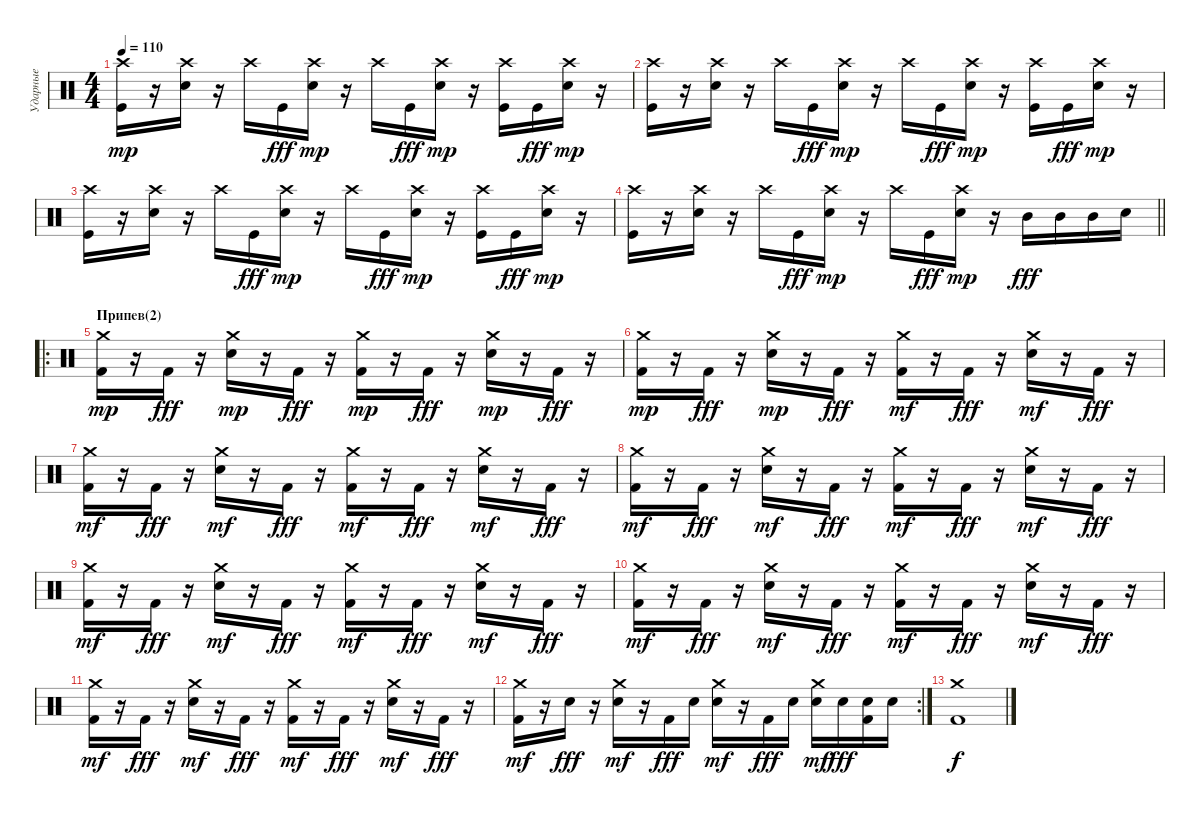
\track ("Ударные" "Ударные") {instrument percussion}
\staff {score}
\articulation defaults
\ts (4 4)
\tempo 110
\clef neutral
\ks c
("Kick (hit)" "Crash high (hit)").16{dy mp} r.16 ("Electric Snare (hit)" "Crash high (hit)").16 r.16 "Crash high (hit)".16 "Kick (hit)".16{dy fff} ("Electric Snare (hit)" "Crash high (hit)").16{dy mp} r.16 "Crash high (hit)".16 "Kick (hit)".16{dy fff} ("Electric Snare (hit)" "Crash high (hit)").16{dy mp} r.16 ("Kick (hit)" "Crash high (hit)").16 "Kick (hit)".16{dy fff} ("Electric Snare (hit)" "Crash high (hit)").16{dy mp} r.16 |
("Kick (hit)" "Crash high (hit)").16 r.16 ("Electric Snare (hit)" "Crash high (hit)").16 r.16 "Crash high (hit)".16 "Kick (hit)".16{dy fff} ("Electric Snare (hit)" "Crash high (hit)").16{dy mp} r.16 "Crash high (hit)".16 "Kick (hit)".16{dy fff} ("Electric Snare (hit)" "Crash high (hit)").16{dy mp} r.16 ("Kick (hit)" "Crash high (hit)").16 "Kick (hit)".16{dy fff} ("Electric Snare (hit)" "Crash high (hit)").16{dy mp} r.16 |
("Kick (hit)" "Crash high (hit)").16 r.16 ("Electric Snare (hit)" "Crash high (hit)").16 r.16 "Crash high (hit)".16 "Kick (hit)".16{dy fff} ("Electric Snare (hit)" "Crash high (hit)").16{dy mp} r.16 "Crash high (hit)".16 "Kick (hit)".16{dy fff} ("Electric Snare (hit)" "Crash high (hit)").16{dy mp} r.16 ("Kick (hit)" "Crash high (hit)").16 "Kick (hit)".16{dy fff} ("Electric Snare (hit)" "Crash high (hit)").16{dy mp} r.16 |
\barLineRight lightlight
("Kick (hit)" "Crash high (hit)").16 r.16 ("Electric Snare (hit)" "Crash high (hit)").16 r.16 "Crash high (hit)".16 "Kick (hit)".16{dy fff} ("Electric Snare (hit)" "Crash high (hit)").16{dy mp} r.16 "Crash high (hit)".16 "Kick (hit)".16{dy fff} ("Electric Snare (hit)" "Crash high (hit)").16{dy mp} r.16 "Mid Tom (hit)".16{dy fff} "Mid Tom (hit)".16 "Mid Tom (hit)".16 "Electric Snare (hit)".16 |
\ro
\section ("" "Припев(2)")
("Kick (hit) 2" "Crash medium (hit)").16{dy mp} r.16 "Kick (hit) 2".16{dy fff} r.16 ("Snare (hit) 2" "Crash medium (hit)").16{dy mp} r.16 "Kick (hit) 2".16{dy fff} r.16 ("Kick (hit) 2" "Crash medium (hit)").16{dy mp} r.16 "Kick (hit) 2".16{dy fff} r.16 ("Snare (hit) 2" "Crash medium (hit)").16{dy mp} r.16 "Kick (hit) 2".16{dy fff} r.16 |
("Kick (hit) 2" "Crash medium (hit)").16{dy mp} r.16 "Kick (hit) 2".16{dy fff} r.16 ("Snare (hit) 2" "Crash medium (hit)").16{dy mp} r.16 "Kick (hit) 2".16{dy fff} r.16 ("Kick (hit) 2" "Crash medium (hit)").16{dy mf} r.16 "Kick (hit) 2".16{dy fff} r.16 ("Snare (hit) 2" "Crash medium (hit)").16{dy mf} r.16 "Kick (hit) 2".16{dy fff} r.16 |
("Kick (hit) 2" "Crash medium (hit)").16{dy mf} r.16 "Kick (hit) 2".16{dy fff} r.16 ("Snare (hit) 2" "Crash medium (hit)").16{dy mf} r.16 "Kick (hit) 2".16{dy fff} r.16 ("Kick (hit) 2" "Crash medium (hit)").16{dy mf} r.16 "Kick (hit) 2".16{dy fff} r.16 ("Snare (hit) 2" "Crash medium (hit)").16{dy mf} r.16 "Kick (hit) 2".16{dy fff} r.16 |
("Kick (hit) 2" "Crash medium (hit)").16{dy mf} r.16 "Kick (hit) 2".16{dy fff} r.16 ("Snare (hit) 2" "Crash medium (hit)").16{dy mf} r.16 "Kick (hit) 2".16{dy fff} r.16 ("Kick (hit) 2" "Crash medium (hit)").16{dy mf} r.16 "Kick (hit) 2".16{dy fff} r.16 ("Snare (hit) 2" "Crash medium (hit)").16{dy mf} r.16 "Kick (hit) 2".16{dy fff} r.16 |
("Kick (hit) 2" "Crash medium (hit)").16{dy mf} r.16 "Kick (hit) 2".16{dy fff} r.16 ("Snare (hit) 2" "Crash medium (hit)").16{dy mf} r.16 "Kick (hit) 2".16{dy fff} r.16 ("Kick (hit) 2" "Crash medium (hit)").16{dy mf} r.16 "Kick (hit) 2".16{dy fff} r.16 ("Snare (hit) 2" "Crash medium (hit)").16{dy mf} r.16 "Kick (hit) 2".16{dy fff} r.16 |
("Kick (hit) 2" "Crash medium (hit)").16{dy mf} r.16 "Kick (hit) 2".16{dy fff} r.16 ("Snare (hit) 2" "Crash medium (hit)").16{dy mf} r.16 "Kick (hit) 2".16{dy fff} r.16 ("Kick (hit) 2" "Crash medium (hit)").16{dy mf} r.16 "Kick (hit) 2".16{dy fff} r.16 ("Snare (hit) 2" "Crash medium (hit)").16{dy mf} r.16 "Kick (hit) 2".16{dy fff} r.16 |
("Kick (hit) 2" "Crash medium (hit)").16{dy mf} r.16 "Kick (hit) 2".16{dy fff} r.16 ("Snare (hit) 2" "Crash medium (hit)").16{dy mf} r.16 "Kick (hit) 2".16{dy fff} r.16 ("Kick (hit) 2" "Crash medium (hit)").16{dy mf} r.16 "Kick (hit) 2".16{dy fff} r.16 ("Snare (hit) 2" "Crash medium (hit)").16{dy mf} r.16 "Kick (hit) 2".16{dy fff} r.16 |
\rc 2
("Kick (hit) 2" "Crash medium (hit)").16{dy mf} r.16 "Electric Snare (hit)".16{dy fff} r.16 ("Electric Snare (hit)" "Crash medium (hit)").16{dy mf} r.16 "Kick (hit) 2".16{dy fff} "Electric Snare (hit)".16 ("Electric Snare (hit)" "Crash medium (hit)").16{dy mf} r.16 "Kick (hit) 2".16{dy fff} "Electric Snare (hit)".16 ("Electric Snare (hit)" "Crash medium (hit)").16{dy mf} "Electric Snare (hit)".16{dy fff} ("Kick (hit) 2" "Electric Snare (hit)").16 "Electric Snare (hit)".16 |
("Kick (hit) 2" "Crash medium (hit)").1{dy f}
